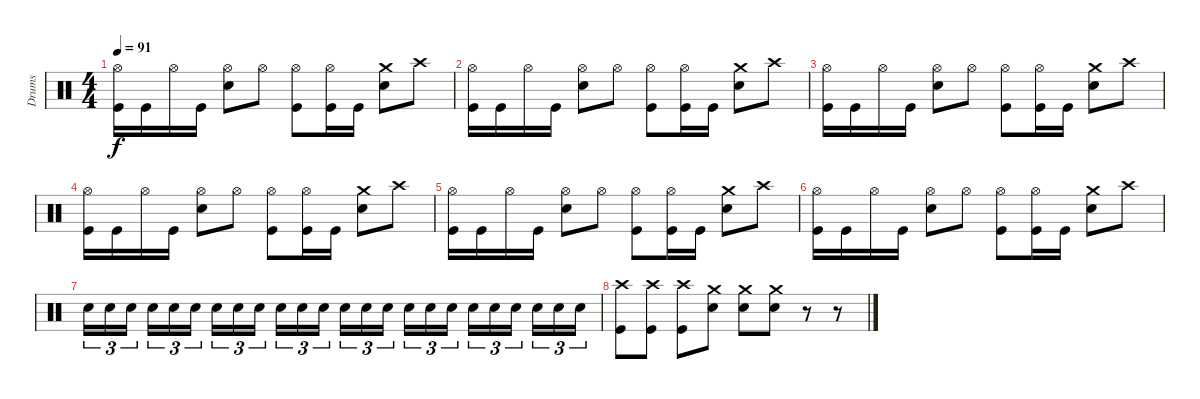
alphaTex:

\track ("Drums" "Drums") {instrument percussion}
\staff {score}
\articulation defaults
\ts (4 4)
\tempo 91
\clef neutral
\ks c
("Hi-Hat (open)" "Kick (hit)").16{dy f} "Kick (hit)".16 "Hi-Hat (open)".16 "Kick (hit)".16 ("Hi-Hat (open)" "Snare (hit) 2").8 "Hi-Hat (open)".8 ("Hi-Hat (open)" "Kick (hit)").8 ("Hi-Hat (open)" "Kick (hit)").16 "Kick (hit)".16 ("Crash medium (hit)" "Snare (hit) 2").8 "Crash high (hit)".8 |
("Hi-Hat (open)" "Kick (hit)").16 "Kick (hit)".16 "Hi-Hat (open)".16 "Kick (hit)".16 ("Hi-Hat (open)" "Snare (hit) 2").8 "Hi-Hat (open)".8 ("Hi-Hat (open)" "Kick (hit)").8 ("Hi-Hat (open)" "Kick (hit)").16 "Kick (hit)".16 ("Crash medium (hit)" "Snare (hit) 2").8 "Crash high (hit)".8 |
("Hi-Hat (open)" "Kick (hit)").16 "Kick (hit)".16 "Hi-Hat (open)".16 "Kick (hit)".16 ("Hi-Hat (open)" "Snare (hit) 2").8 "Hi-Hat (open)".8 ("Hi-Hat (open)" "Kick (hit)").8 ("Hi-Hat (open)" "Kick (hit)").16 "Kick (hit)".16 ("Crash medium (hit)" "Snare (hit) 2").8 "Crash high (hit)".8 |
("Hi-Hat (open)" "Kick (hit)").16 "Kick (hit)".16 "Hi-Hat (open)".16 "Kick (hit)".16 ("Hi-Hat (open)" "Snare (hit) 2").8 "Hi-Hat (open)".8 ("Hi-Hat (open)" "Kick (hit)").8 ("Hi-Hat (open)" "Kick (hit)").16 "Kick (hit)".16 ("Crash medium (hit)" "Snare (hit) 2").8 "Crash high (hit)".8 |
("Hi-Hat (open)" "Kick (hit)").16 "Kick (hit)".16 "Hi-Hat (open)".16 "Kick (hit)".16 ("Hi-Hat (open)" "Snare (hit) 2").8 "Hi-Hat (open)".8 ("Hi-Hat (open)" "Kick (hit)").8 ("Hi-Hat (open)" "Kick (hit)").16 "Kick (hit)".16 ("Crash medium (hit)" "Snare (hit) 2").8 "Crash high (hit)".8 |
("Hi-Hat (open)" "Kick (hit)").16 "Kick (hit)".16 "Hi-Hat (open)".16 "Kick (hit)".16 ("Hi-Hat (open)" "Snare (hit) 2").8 "Hi-Hat (open)".8 ("Hi-Hat (open)" "Kick (hit)").8 ("Hi-Hat (open)" "Kick (hit)").16 "Kick (hit)".16 ("Crash medium (hit)" "Snare (hit) 2").8 "Crash high (hit)".8 |
"Snare (hit) 2".16{tu (3 2)} "Snare (hit) 2".16{tu (3 2)} "Snare (hit) 2".16{tu (3 2) beam splitsecondary} "Snare (hit) 2".16{tu (3 2)} "Snare (hit) 2".16{tu (3 2)} "Snare (hit) 2".16{tu (3 2)} "Snare (hit) 2".16{tu (3 2)} "Snare (hit) 2".16{tu (3 2)} "Snare (hit) 2".16{tu (3 2) beam splitsecondary} "Snare (hit) 2".16{tu (3 2)} "Snare (hit) 2".16{tu (3 2)} "Snare (hit) 2".16{tu (3 2)} "Snare (hit) 2".16{tu (3 2)} "Snare (hit) 2".16{tu (3 2)} "Snare (hit) 2".16{tu (3 2) beam splitsecondary} "Snare (hit) 2".16{tu (3 2)} "Snare (hit) 2".16{tu (3 2)} "Snare (hit) 2".16{tu (3 2)} "Snare (hit) 2".16{tu (3 2)} "Snare (hit) 2".16{tu (3 2)} "Snare (hit) 2".16{tu (3 2) beam splitsecondary} "Snare (hit) 2".16{tu (3 2)} "Snare (hit) 2".16{tu (3 2)} "Snare (hit) 2".16{tu (3 2)} |
("Crash high (hit)" "Kick (hit)").8 ("Crash high (hit)" "Kick (hit)").8 ("Crash high (hit)" "Kick (hit)").8 ("Crash medium (hit)" "Snare (hit) 2").8 ("Crash medium (hit)" "Snare (hit) 2").8 ("Crash medium (hit)" "Snare (hit) 2").8 r.8 r.8
